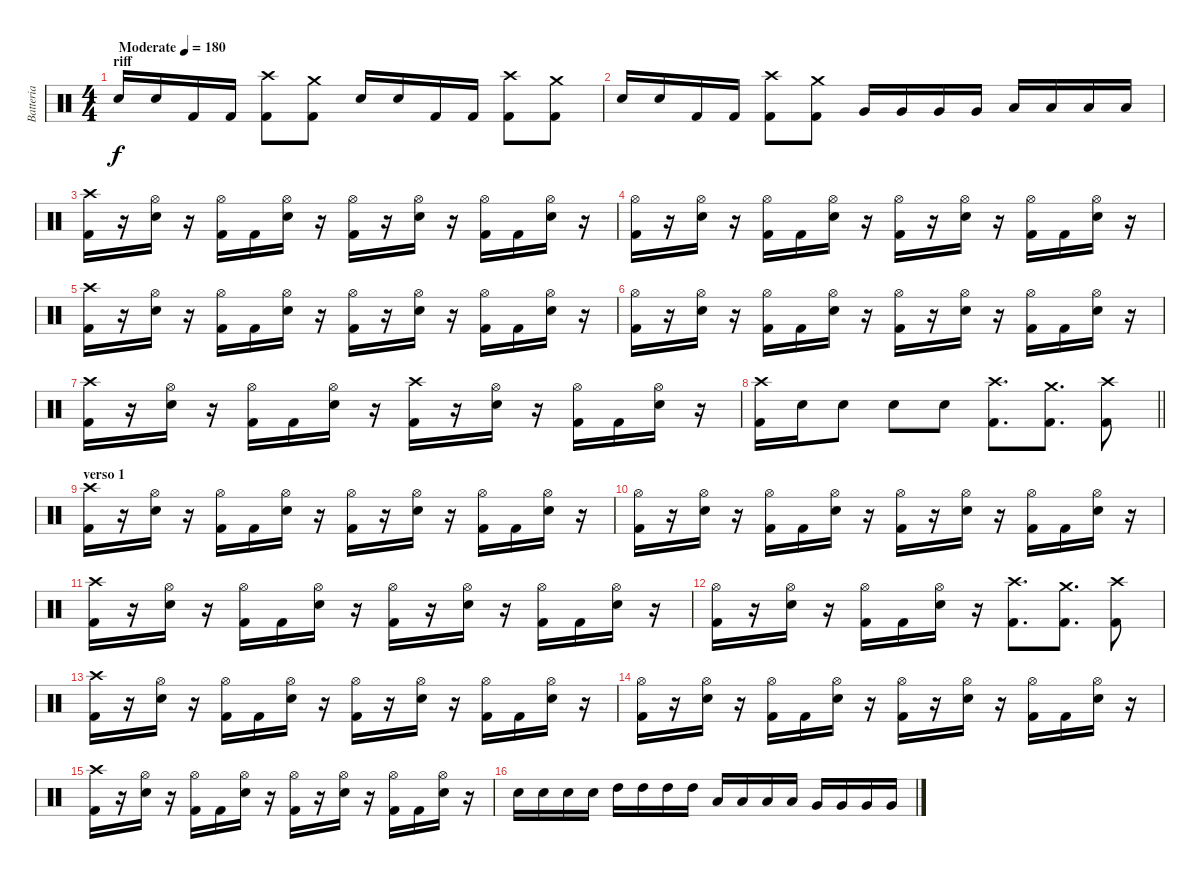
\track ("Batteria" "Batteria") {instrument percussion}
\staff {score}
\articulation defaults
\ts (4 4)
\section ("" "riff")
\tempo (180 "Moderate")
\clef neutral
\ks c "Snare (hit) 2".16{dy f} "Snare (hit) 2".16 "Kick (hit) 2".16 "Kick (hit) 2".16
("Crash high (hit)" "Kick (hit) 2").8 ("Crash medium (hit)" "Kick (hit) 2").8 "Snare (hit) 2".16 "Snare (hit) 2".16 "Kick (hit) 2".16 "Kick (hit) 2".16 ("Crash high (hit)" "Kick (hit) 2").8 ("Crash medium (hit)" "Kick (hit) 2").8 |
"Snare (hit) 2".16 "Snare (hit) 2".16 "Kick (hit) 2".16 "Kick (hit) 2".16 ("Crash high (hit)" "Kick (hit) 2").8 ("Crash medium (hit)" "Kick (hit) 2").8 "Very Low Tom (hit)".16 "Very Low Tom (hit)".16 "Very Low Tom (hit)".16 "Very Low Tom (hit)".16 "Low Floor Tom (hit)".16 "Low Floor Tom (hit)".16 "Low Floor Tom (hit)".16 "Low Floor Tom (hit)".16 |
("Crash high (hit)" "Kick (hit) 2").16 r.16 ("Hi-Hat (open)" "Snare (hit) 2").16 r.16 ("Hi-Hat (open)" "Kick (hit) 2").16 "Kick (hit) 2".16 ("Hi-Hat (open)" "Snare (hit) 2").16 r.16 ("Hi-Hat (open)" "Kick (hit) 2").16 r.16 ("Hi-Hat (open)" "Snare (hit) 2").16 r.16 ("Hi-Hat (open)" "Kick (hit) 2").16 "Kick (hit) 2".16 ("Hi-Hat (open)" "Snare (hit) 2").16 r.16 |
("Hi-Hat (open)" "Kick (hit) 2").16 r.16 ("Hi-Hat (open)" "Snare (hit) 2").16 r.16 ("Hi-Hat (open)" "Kick (hit) 2").16 "Kick (hit) 2".16 ("Hi-Hat (open)" "Snare (hit) 2").16 r.16 ("Hi-Hat (open)" "Kick (hit) 2").16 r.16 ("Hi-Hat (open)" "Snare (hit) 2").16 r.16 ("Hi-Hat (open)" "Kick (hit) 2").16 "Kick (hit) 2".16 ("Hi-Hat (open)" "Snare (hit) 2").16 r.16 |
("Crash high (hit)" "Kick (hit) 2").16 r.16 ("Hi-Hat (open)" "Snare (hit) 2").16 r.16 ("Hi-Hat (open)" "Kick (hit) 2").16 "Kick (hit) 2".16 ("Hi-Hat (open)" "Snare (hit) 2").16 r.16 ("Hi-Hat (open)" "Kick (hit) 2").16 r.16 ("Hi-Hat (open)" "Snare (hit) 2").16 r.16 ("Hi-Hat (open)" "Kick (hit) 2").16 "Kick (hit) 2".16 ("Hi-Hat (open)" "Snare (hit) 2").16 r.16 |
("Hi-Hat (open)" "Kick (hit) 2").16 r.16 ("Hi-Hat (open)" "Snare (hit) 2").16 r.16 ("Hi-Hat (open)" "Kick (hit) 2").16 "Kick (hit) 2".16 ("Hi-Hat (open)" "Snare (hit) 2").16 r.16 ("Hi-Hat (open)" "Kick (hit) 2").16 r.16 ("Hi-Hat (open)" "Snare (hit) 2").16 r.16 ("Hi-Hat (open)" "Kick (hit) 2").16 "Kick (hit) 2".16 ("Hi-Hat (open)" "Snare (hit) 2").16 r.16 |
("Crash high (hit)" "Kick (hit) 2").16 r.16 ("Hi-Hat (open)" "Snare (hit) 2").16 r.16 ("Hi-Hat (open)" "Kick (hit) 2").16 "Kick (hit) 2".16 ("Hi-Hat (open)" "Snare (hit) 2").16 r.16 ("Crash high (hit)" "Kick (hit) 2").16 r.16 ("Hi-Hat (open)" "Snare (hit) 2").16 r.16 ("Hi-Hat (open)" "Kick (hit) 2").16 "Kick (hit) 2".16 ("Hi-Hat (open)" "Snare (hit) 2").16 r.16 |
\barLineRight lightlight
("Crash high (hit)" "Kick (hit) 2").16 "Snare (hit) 2".16 "Snare (hit) 2".8 "Snare (hit) 2".8 "Snare (hit) 2".8 ("Crash high (hit)" "Kick (hit) 2").8{d} ("Crash medium (hit)" "Kick (hit) 2").8{d} ("Crash high (hit)" "Kick (hit) 2").8 |
\section ("" "verso 1")
("Crash high (hit)" "Kick (hit) 2").16 r.16 ("Hi-Hat (open)" "Snare (hit) 2").16 r.16 ("Hi-Hat (open)" "Kick (hit) 2").16 "Kick (hit) 2".16 ("Hi-Hat (open)" "Snare (hit) 2").16 r.16 ("Hi-Hat (open)" "Kick (hit) 2").16 r.16 ("Hi-Hat (open)" "Snare (hit) 2").16 r.16 ("Hi-Hat (open)" "Kick (hit) 2").16 "Kick (hit) 2".16 ("Hi-Hat (open)" "Snare (hit) 2").16 r.16 |
("Hi-Hat (open)" "Kick (hit) 2").16 r.16 ("Hi-Hat (open)" "Snare (hit) 2").16 r.16 ("Hi-Hat (open)" "Kick (hit) 2").16 "Kick (hit) 2".16 ("Hi-Hat (open)" "Snare (hit) 2").16 r.16 ("Hi-Hat (open)" "Kick (hit) 2").16 r.16 ("Hi-Hat (open)" "Snare (hit) 2").16 r.16 ("Hi-Hat (open)" "Kick (hit) 2").16 "Kick (hit) 2".16 ("Hi-Hat (open)" "Snare (hit) 2").16 r.16 |
("Crash high (hit)" "Kick (hit) 2").16 r.16 ("Hi-Hat (open)" "Snare (hit) 2").16 r.16 ("Hi-Hat (open)" "Kick (hit) 2").16 "Kick (hit) 2".16 ("Hi-Hat (open)" "Snare (hit) 2").16 r.16 ("Hi-Hat (open)" "Kick (hit) 2").16 r.16 ("Hi-Hat (open)" "Snare (hit) 2").16 r.16 ("Hi-Hat (open)" "Kick (hit) 2").16 "Kick (hit) 2".16 ("Hi-Hat (open)" "Snare (hit) 2").16 r.16 |
("Hi-Hat (open)" "Kick (hit) 2").16 r.16 ("Hi-Hat (open)" "Snare (hit) 2").16 r.16 ("Hi-Hat (open)" "Kick (hit) 2").16 "Kick (hit) 2".16 ("Hi-Hat (open)" "Snare (hit) 2").16 r.16 ("Crash high (hit)" "Kick (hit) 2").8{d} ("Crash medium (hit)" "Kick (hit) 2").8{d} ("Crash high (hit)" "Kick (hit) 2").8 |
("Crash high (hit)" "Kick (hit) 2").16 r.16 ("Hi-Hat (open)" "Snare (hit) 2").16 r.16 ("Hi-Hat (open)" "Kick (hit) 2").16 "Kick (hit) 2".16 ("Hi-Hat (open)" "Snare (hit) 2").16 r.16 ("Hi-Hat (open)" "Kick (hit) 2").16 r.16 ("Hi-Hat (open)" "Snare (hit) 2").16 r.16 ("Hi-Hat (open)" "Kick (hit) 2").16 "Kick (hit) 2".16 ("Hi-Hat (open)" "Snare (hit) 2").16 r.16 |
("Hi-Hat (open)" "Kick (hit) 2").16 r.16 ("Hi-Hat (open)" "Snare (hit) 2").16 r.16 ("Hi-Hat (open)" "Kick (hit) 2").16 "Kick (hit) 2".16 ("Hi-Hat (open)" "Snare (hit) 2").16 r.16 ("Hi-Hat (open)" "Kick (hit) 2").16 r.16 ("Hi-Hat (open)" "Snare (hit) 2").16 r.16 ("Hi-Hat (open)" "Kick (hit) 2").16 "Kick (hit) 2".16 ("Hi-Hat (open)" "Snare (hit) 2").16 r.16 |
("Crash high (hit)" "Kick (hit) 2").16 r.16 ("Hi-Hat (open)" "Snare (hit) 2").16 r.16 ("Hi-Hat (open)" "Kick (hit) 2").16 "Kick (hit) 2".16 ("Hi-Hat (open)" "Snare (hit) 2").16 r.16 ("Hi-Hat (open)" "Kick (hit) 2").16 r.16 ("Hi-Hat (open)" "Snare (hit) 2").16 r.16 ("Hi-Hat (open)" "Kick (hit) 2").16 "Kick (hit) 2".16 ("Hi-Hat (open)" "Snare (hit) 2").16 r.16 |
"Snare (hit) 2".16 "Snare (hit) 2".16 "Snare (hit) 2".16 "Snare (hit) 2".16 "High Tom (hit)".16 "High Tom (hit)".16 "High Tom (hit)".16 "High Tom (hit)".16 "Low Tom (hit)".16 "Low Tom (hit)".16 "Low Tom (hit)".16 "Low Tom (hit)".16 "Very Low Tom (hit)".16 "Very Low Tom (hit)".16 "Very Low Tom (hit)".16 "Very Low Tom (hit)".16
